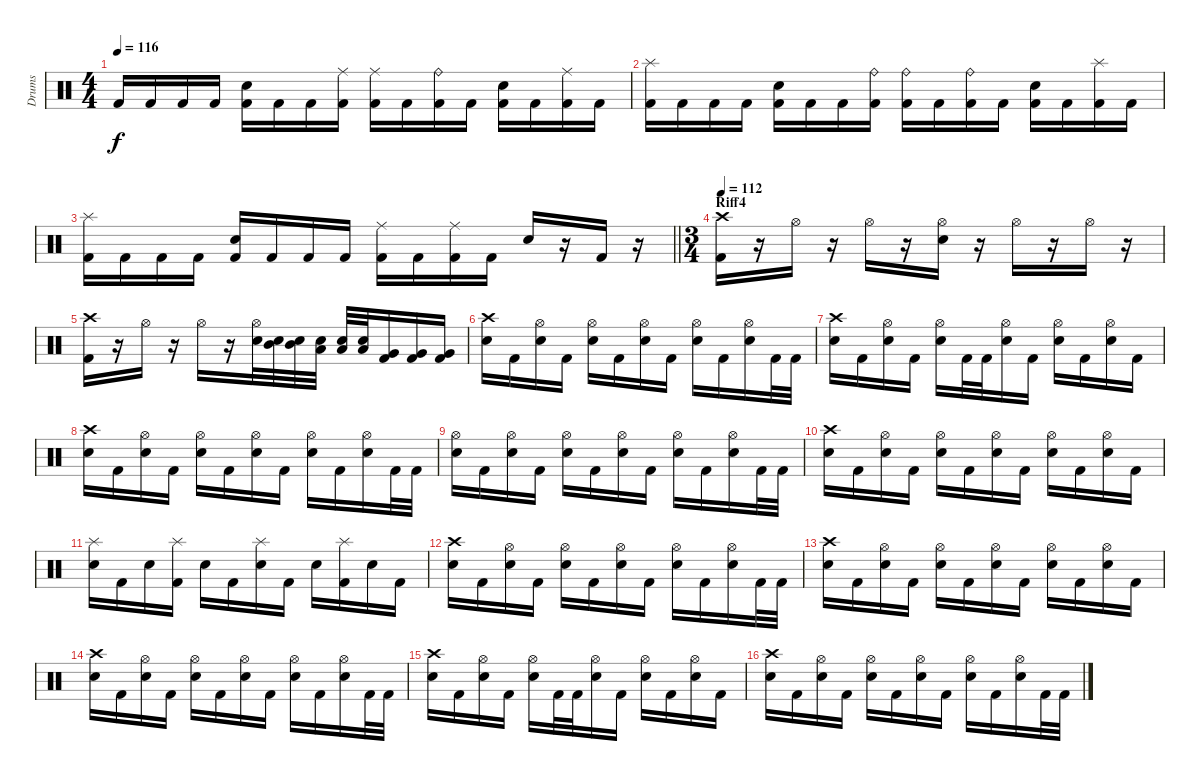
\track ("Drums" "Drums") {instrument percussion}
\staff {score}
\articulation defaults
\ts (4 4)
\tempo 116
\clef neutral
\ks c "Kick (hit) 2".16{dy f} "Kick (hit) 2".16 "Kick (hit) 2".16 "Kick (hit) 2".16
("Snare (hit) 2" "Kick (hit) 2").16 "Kick (hit) 2".16 "Kick (hit) 2".16 ("Ride (middle)" "Kick (hit) 2").16 ("Ride (middle)" "Kick (hit) 2").16 "Kick (hit) 2".16 ("Ride (bell)" "Kick (hit) 2").16 "Kick (hit) 2".16 ("Snare (hit) 2" "Kick (hit) 2").16 "Kick (hit) 2".16 ("Ride (middle)" "Kick (hit) 2").16 "Kick (hit) 2".16 |
("Splash (hit)" "Kick (hit) 2").16 "Kick (hit) 2".16 "Kick (hit) 2".16 "Kick (hit) 2".16 ("Snare (hit) 2" "Kick (hit) 2").16 "Kick (hit) 2".16 "Kick (hit) 2".16 ("Ride (bell)" "Kick (hit) 2").16 ("Ride (bell)" "Kick (hit) 2").16 "Kick (hit) 2".16 ("Ride (bell)" "Kick (hit) 2").16 "Kick (hit) 2".16 ("Snare (hit) 2" "Kick (hit) 2").16 "Kick (hit) 2".16 ("Splash (hit)" "Kick (hit) 2").16 "Kick (hit) 2".16 |
\barLineRight lightlight
("Splash (hit)" "Kick (hit) 2").16 "Kick (hit) 2".16 "Kick (hit) 2".16 "Kick (hit) 2".16 ("Snare (hit) 2" "Kick (hit) 2").16 "Kick (hit) 2".16 "Kick (hit) 2".16 "Kick (hit) 2".16 ("Ride (middle)" "Kick (hit) 2").16 "Kick (hit) 2".16 ("Ride (middle)" "Kick (hit) 2").16 "Kick (hit) 2".16 "Snare (hit) 2".16 r.16 "Kick (hit) 2".16 r.16 |
\ts (3 4)
\section ("" "Riff4")
\tempo 112
("Crash high (hit)" "Kick (hit) 2").16 r.16 "Hi-Hat (open)".16 r.16 "Hi-Hat (open)".16 r.16 ("Hi-Hat (open)" "Snare (hit) 2").16 r.16 "Hi-Hat (open)".16 r.16 "Hi-Hat (open)".16 r.16 |
("Crash high (hit)" "Kick (hit) 2").16 r.16 "Hi-Hat (open)".16 r.16 "Hi-Hat (open)".16 r.16 ("Hi-Hat (open)" "Snare (hit) 2").32 ("Mid Tom (hit)" "Snare (hit) 2").32 ("Mid Tom (hit)" "Snare (hit) 2").32 ("Low Tom (hit)" "Snare (hit) 2").32 ("Low Tom (hit)" "Snare (hit) 2").32 ("Low Tom (hit)" "Snare (hit) 2").32 ("Very Low Tom (hit)" "Kick (hit) 2").16 ("Very Low Tom (hit)" "Kick (hit) 2").16 ("Very Low Tom (hit)" "Kick (hit) 2").16 |
("Crash high (hit)" "Snare (hit) 2").16 "Kick (hit) 2".16 ("Hi-Hat (open)" "Snare (hit) 2").16 "Kick (hit) 2".16 ("Hi-Hat (open)" "Snare (hit) 2").16 "Kick (hit) 2".16 ("Hi-Hat (open)" "Snare (hit) 2").16 "Kick (hit) 2".16 ("Hi-Hat (open)" "Snare (hit) 2").16 "Kick (hit) 2".16 ("Hi-Hat (open)" "Snare (hit) 2").16 "Kick (hit) 2".32 "Kick (hit) 2".32 |
("Crash high (hit)" "Snare (hit) 2").16 "Kick (hit) 2".16 ("Hi-Hat (open)" "Snare (hit) 2").16 "Kick (hit) 2".16 ("Hi-Hat (open)" "Snare (hit) 2").16 "Kick (hit) 2".32 "Kick (hit) 2".32 ("Hi-Hat (open)" "Snare (hit) 2").16 "Kick (hit) 2".16 ("Hi-Hat (open)" "Snare (hit) 2").16 "Kick (hit) 2".16 ("Hi-Hat (open)" "Snare (hit) 2").16 "Kick (hit) 2".16 |
("Crash high (hit)" "Snare (hit) 2").16 "Kick (hit) 2".16 ("Hi-Hat (open)" "Snare (hit) 2").16 "Kick (hit) 2".16 ("Hi-Hat (open)" "Snare (hit) 2").16 "Kick (hit) 2".16 ("Hi-Hat (open)" "Snare (hit) 2").16 "Kick (hit) 2".16 ("Hi-Hat (open)" "Snare (hit) 2").16 "Kick (hit) 2".16 ("Hi-Hat (open)" "Snare (hit) 2").16 "Kick (hit) 2".32 "Kick (hit) 2".32 |
("Hi-Hat (open)" "Snare (hit) 2").16 "Kick (hit) 2".16 ("Hi-Hat (open)" "Snare (hit) 2").16 "Kick (hit) 2".16 ("Hi-Hat (open)" "Snare (hit) 2").16 "Kick (hit) 2".16 ("Hi-Hat (open)" "Snare (hit) 2").16 "Kick (hit) 2".16 ("Hi-Hat (open)" "Snare (hit) 2").16 "Kick (hit) 2".16 ("Hi-Hat (open)" "Snare (hit) 2").16 "Kick (hit) 2".32 "Kick (hit) 2".32 |
("Crash high (hit)" "Snare (hit) 2").16 "Kick (hit) 2".16 ("Hi-Hat (open)" "Snare (hit) 2").16 "Kick (hit) 2".16 ("Hi-Hat (open)" "Snare (hit) 2").16 "Kick (hit) 2".16 ("Hi-Hat (open)" "Snare (hit) 2").16 "Kick (hit) 2".16 ("Hi-Hat (open)" "Snare (hit) 2").16 "Kick (hit) 2".16 ("Hi-Hat (open)" "Snare (hit) 2").16 "Kick (hit) 2".16 |
("Splash (hit)" "Snare (hit) 2").16 "Kick (hit) 2".16 "Snare (hit) 2".16 ("Splash (hit)" "Kick (hit) 2").16 "Snare (hit) 2".16 "Kick (hit) 2".16 ("Splash (hit)" "Snare (hit) 2").16 "Kick (hit) 2".16 "Snare (hit) 2".16 ("Splash (hit)" "Kick (hit) 2").16 "Snare (hit) 2".16 "Kick (hit) 2".16 |
("Crash high (hit)" "Snare (hit) 2").16 "Kick (hit) 2".16 ("Hi-Hat (open)" "Snare (hit) 2").16 "Kick (hit) 2".16 ("Hi-Hat (open)" "Snare (hit) 2").16 "Kick (hit) 2".16 ("Hi-Hat (open)" "Snare (hit) 2").16 "Kick (hit) 2".16 ("Hi-Hat (open)" "Snare (hit) 2").16 "Kick (hit) 2".16 ("Hi-Hat (open)" "Snare (hit) 2").16 "Kick (hit) 2".32 "Kick (hit) 2".32 |
("Crash high (hit)" "Snare (hit) 2").16 "Kick (hit) 2".16 ("Hi-Hat (open)" "Snare (hit) 2").16 "Kick (hit) 2".16 ("Hi-Hat (open)" "Snare (hit) 2").16 "Kick (hit) 2".16 ("Hi-Hat (open)" "Snare (hit) 2").16 "Kick (hit) 2".16 ("Hi-Hat (open)" "Snare (hit) 2").16 "Kick (hit) 2".16 ("Hi-Hat (open)" "Snare (hit) 2").16 "Kick (hit) 2".16 |
("Crash high (hit)" "Snare (hit) 2").16 "Kick (hit) 2".16 ("Hi-Hat (open)" "Snare (hit) 2").16 "Kick (hit) 2".16 ("Hi-Hat (open)" "Snare (hit) 2").16 "Kick (hit) 2".16 ("Hi-Hat (open)" "Snare (hit) 2").16 "Kick (hit) 2".16 ("Hi-Hat (open)" "Snare (hit) 2").16 "Kick (hit) 2".16 ("Hi-Hat (open)" "Snare (hit) 2").16 "Kick (hit) 2".32 "Kick (hit) 2".32 |
("Crash high (hit)" "Snare (hit) 2").16 "Kick (hit) 2".16 ("Hi-Hat (open)" "Snare (hit) 2").16 "Kick (hit) 2".16 ("Hi-Hat (open)" "Snare (hit) 2").16 "Kick (hit) 2".32 "Kick (hit) 2".32 ("Hi-Hat (open)" "Snare (hit) 2").16 "Kick (hit) 2".16 ("Hi-Hat (open)" "Snare (hit) 2").16 "Kick (hit) 2".16 ("Hi-Hat (open)" "Snare (hit) 2").16 "Kick (hit) 2".16 |
("Crash high (hit)" "Snare (hit) 2").16 "Kick (hit) 2".16 ("Hi-Hat (open)" "Snare (hit) 2").16 "Kick (hit) 2".16 ("Hi-Hat (open)" "Snare (hit) 2").16 "Kick (hit) 2".16 ("Hi-Hat (open)" "Snare (hit) 2").16 "Kick (hit) 2".16 ("Hi-Hat (open)" "Snare (hit) 2").16 "Kick (hit) 2".16 ("Hi-Hat (open)" "Snare (hit) 2").16 "Kick (hit) 2".32 "Kick (hit) 2".32
